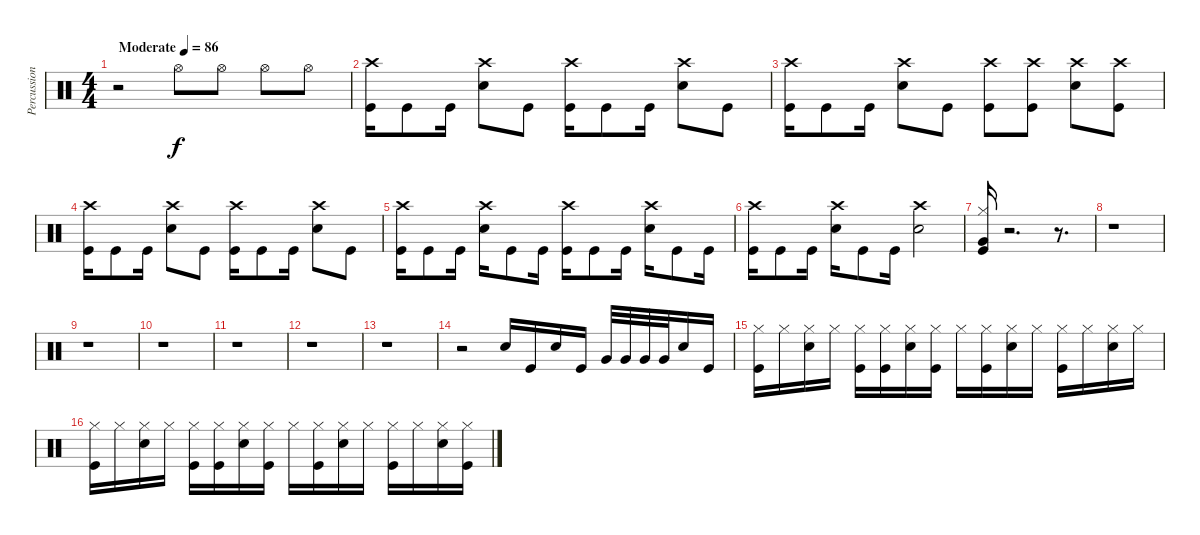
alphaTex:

\track ("Percussions" "Percussion") {instrument percussion}
\staff {score}
\articulation defaults
\ts (4 4)
\tempo (86 "Moderate")
\clef neutral
\ks c
r.2{dy f} "Hi-Hat (open)".8 "Hi-Hat (open)".8 "Hi-Hat (open)".8 "Hi-Hat (open)".8 |
("Crash high (hit)" "Kick (hit)").16 "Kick (hit)".8 "Kick (hit)".16 ("Crash high (hit)" "Snare (hit) 2").8 "Kick (hit)".8 ("Crash high (hit)" "Kick (hit)").16 "Kick (hit)".8 "Kick (hit)".16 ("Crash high (hit)" "Snare (hit) 2").8 "Kick (hit)".8 |
("Crash high (hit)" "Kick (hit)").16 "Kick (hit)".8 "Kick (hit)".16 ("Crash high (hit)" "Snare (hit) 2").8 "Kick (hit)".8 ("Crash high (hit)" "Kick (hit)").8 ("Crash high (hit)" "Kick (hit)").8 ("Crash high (hit)" "Snare (hit) 2").8 ("Crash high (hit)" "Kick (hit)").8 |
("Crash high (hit)" "Kick (hit)").16 "Kick (hit)".8 "Kick (hit)".16 ("Crash high (hit)" "Snare (hit) 2").8 "Kick (hit)".8 ("Crash high (hit)" "Kick (hit)").16 "Kick (hit)".8 "Kick (hit)".16 ("Crash high (hit)" "Snare (hit) 2").8 "Kick (hit)".8 |
("Kick (hit)" "Crash high (hit)").16 "Kick (hit)".8 "Kick (hit)".16 ("Snare (hit) 2" "Crash high (hit)").16 "Kick (hit)".8 "Kick (hit)".16 ("Kick (hit)" "Crash high (hit)").16 "Kick (hit)".8 "Kick (hit)".16 ("Snare (hit) 2" "Crash high (hit)").16 "Kick (hit)".8 "Kick (hit)".16 |
("Kick (hit)" "Crash high (hit)").16 "Kick (hit)".8 "Kick (hit)".16 ("Snare (hit) 2" "Crash high (hit)").16 "Kick (hit)".8 "Kick (hit)".16 ("Snare (hit) 2" "Crash high (hit)").2 |
("Hi-Hat (closed)" "Very Low Tom (hit)" "Kick (hit)").16 r.2{d} r.8{d} |
r.1 |
r.1 |
r.1 |
r.1 |
r.1 |
r.1 |
r.2 "Snare (hit) 2".16 "Kick (hit)".16 "Snare (hit) 2".16 "Kick (hit)".16 "Very Low Tom (hit)".32 "Very Low Tom (hit)".32 "Very Low Tom (hit)".32 "Very Low Tom (hit)".32 "Snare (hit) 2".16 "Kick (hit)".16 |
("Hi-Hat (closed)" "Kick (hit)").16 "Hi-Hat (closed)".16 ("Hi-Hat (closed)" "Snare (hit) 2").16 "Hi-Hat (closed)".16 ("Hi-Hat (closed)" "Kick (hit)").16 ("Hi-Hat (closed)" "Kick (hit)").16 ("Hi-Hat (closed)" "Snare (hit) 2").16 ("Hi-Hat (closed)" "Kick (hit)").16 "Hi-Hat (closed)".16 ("Hi-Hat (closed)" "Kick (hit)").16 ("Hi-Hat (closed)" "Snare (hit) 2").16 "Hi-Hat (closed)".16 ("Hi-Hat (closed)" "Kick (hit)").16 "Hi-Hat (closed)".16 ("Hi-Hat (closed)" "Snare (hit) 2").16 "Hi-Hat (closed)".16 |
("Hi-Hat (closed)" "Kick (hit)").16 "Hi-Hat (closed)".16 ("Hi-Hat (closed)" "Snare (hit) 2").16 "Hi-Hat (closed)".16 ("Hi-Hat (closed)" "Kick (hit)").16 ("Hi-Hat (closed)" "Kick (hit)").16 ("Hi-Hat (closed)" "Snare (hit) 2").16 ("Hi-Hat (closed)" "Kick (hit)").16 "Hi-Hat (closed)".16 ("Hi-Hat (closed)" "Kick (hit)").16 ("Hi-Hat (closed)" "Snare (hit) 2").16 "Hi-Hat (closed)".16 ("Hi-Hat (closed)" "Kick (hit)").16 "Hi-Hat (closed)".16 ("Hi-Hat (closed)" "Snare (hit) 2").16 ("Hi-Hat (closed)" "Kick (hit)").16
